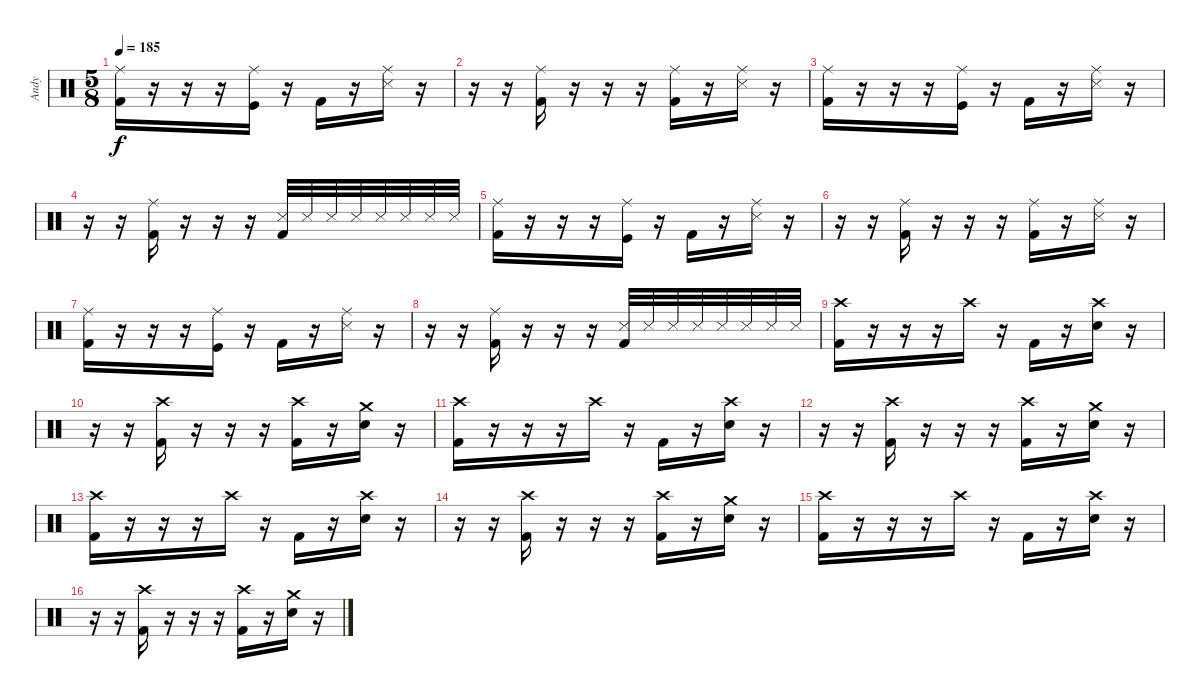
\track ("Andy" "Andy") {instrument percussion}
\staff {score}
\articulation defaults
\ts (5 8)
\tempo 185
\clef neutral
\ks c
("Ride (middle)" "Kick (hit) 2").16{dy f} r.16 r.16 r.16 ("Ride (middle)" "Kick (hit)").16 r.16 "Kick (hit) 2".16 r.16 ("Ride (middle)" "Snare (side stick) 3").16 r.16 |
r.16 r.16 ("Ride (middle)" "Kick (hit) 2").16 r.16 r.16 r.16 ("Ride (middle)" "Kick (hit) 2").16 r.16 ("Ride (middle)" "Snare (side stick) 3").16 r.16 |
("Ride (middle)" "Kick (hit) 2").16 r.16 r.16 r.16 ("Ride (middle)" "Kick (hit)").16 r.16 "Kick (hit) 2".16 r.16 ("Ride (middle)" "Snare (side stick) 3").16 r.16 |
r.16 r.16 ("Ride (middle)" "Kick (hit) 2").16 r.16 r.16 r.16 ("Snare (side stick) 3" "Kick (hit) 2").32 "Snare (side stick) 3".32 "Snare (side stick) 3".32 "Snare (side stick) 3".32 "Snare (side stick) 3".32 "Snare (side stick) 3".32 "Snare (side stick) 3".32 "Snare (side stick) 3".32 |
("Ride (middle)" "Kick (hit) 2").16 r.16 r.16 r.16 ("Ride (middle)" "Kick (hit)").16 r.16 "Kick (hit) 2".16 r.16 ("Ride (middle)" "Snare (side stick) 3").16 r.16 |
r.16 r.16 ("Ride (middle)" "Kick (hit) 2").16 r.16 r.16 r.16 ("Ride (middle)" "Kick (hit) 2").16 r.16 ("Ride (middle)" "Snare (side stick) 3").16 r.16 |
("Ride (middle)" "Kick (hit) 2").16 r.16 r.16 r.16 ("Ride (middle)" "Kick (hit)").16 r.16 "Kick (hit) 2".16 r.16 ("Ride (middle)" "Snare (side stick) 3").16 r.16 |
r.16 r.16 ("Ride (middle)" "Kick (hit) 2").16 r.16 r.16 r.16 ("Snare (side stick) 3" "Kick (hit) 2").32 "Snare (side stick) 3".32 "Snare (side stick) 3".32 "Snare (side stick) 3".32 "Snare (side stick) 3".32 "Snare (side stick) 3".32 "Snare (side stick) 3".32 "Snare (side stick) 3".32 |
("Crash high (hit)" "Kick (hit) 2").16 r.16 r.16 r.16 "Crash high (hit)".16 r.16 "Kick (hit) 2".16 r.16 ("Crash high (hit)" "Electric Snare (hit)").16 r.16 |
r.16 r.16 ("Crash high (hit)" "Kick (hit) 2").16 r.16 r.16 r.16 ("Crash high (hit)" "Kick (hit) 2").16 r.16 ("Crash medium (hit)" "Electric Snare (hit)").16 r.16 |
("Crash high (hit)" "Kick (hit) 2").16 r.16 r.16 r.16 "Crash high (hit)".16 r.16 "Kick (hit) 2".16 r.16 ("Crash high (hit)" "Electric Snare (hit)").16 r.16 |
r.16 r.16 ("Crash high (hit)" "Kick (hit) 2").16 r.16 r.16 r.16 ("Crash high (hit)" "Kick (hit) 2").16 r.16 ("Crash medium (hit)" "Electric Snare (hit)").16 r.16 |
("Crash high (hit)" "Kick (hit) 2").16 r.16 r.16 r.16 "Crash high (hit)".16 r.16 "Kick (hit) 2".16 r.16 ("Crash high (hit)" "Electric Snare (hit)").16 r.16 |
r.16 r.16 ("Crash high (hit)" "Kick (hit) 2").16 r.16 r.16 r.16 ("Crash high (hit)" "Kick (hit) 2").16 r.16 ("Crash medium (hit)" "Electric Snare (hit)").16 r.16 |
("Crash high (hit)" "Kick (hit) 2").16 r.16 r.16 r.16 "Crash high (hit)".16 r.16 "Kick (hit) 2".16 r.16 ("Crash high (hit)" "Electric Snare (hit)").16 r.16 |
r.16 r.16 ("Crash high (hit)" "Kick (hit) 2").16 r.16 r.16 r.16 ("Crash high (hit)" "Kick (hit) 2").16 r.16 ("Crash medium (hit)" "Electric Snare (hit)").16 r.16
